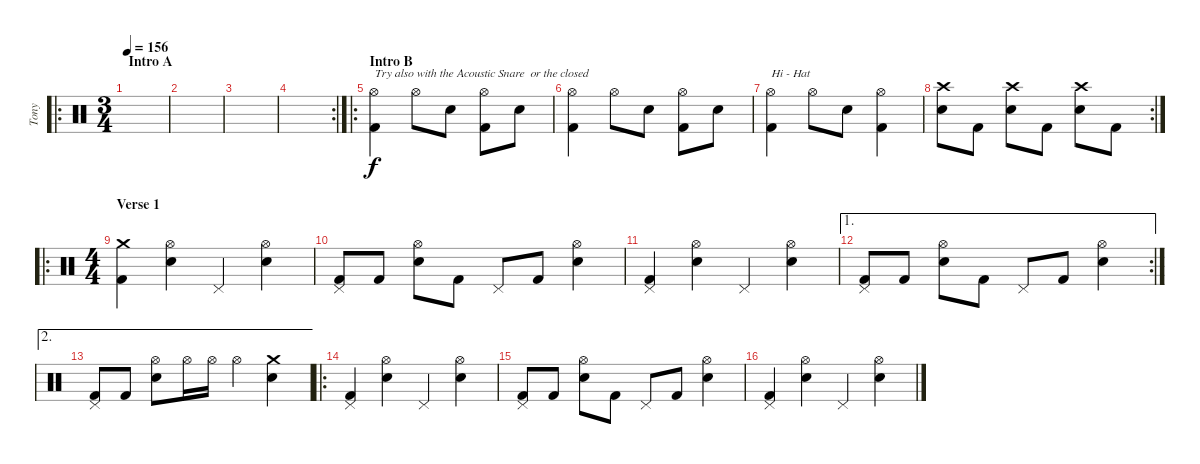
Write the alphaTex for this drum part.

\track ("Tony" "Tony") {instrument percussion}
\staff {score}
\articulation defaults
\ro
\ts (3 4)
\section ("" "Intro A")
\tempo 156
\clef neutral
\ks c
|
|
|
\rc 2
|
\ro
\section ("" "Intro B")
("Hi-Hat (open)" "Kick (hit) 2").4{txt "Try also with the Acoustic Snare  or the closed"} "Hi-Hat (open)".8 "Electric Snare (hit)".8 ("Hi-Hat (open)" "Kick (hit) 2").8 "Electric Snare (hit)".8 |
("Hi-Hat (open)" "Kick (hit) 2").4 "Hi-Hat (open)".8 "Electric Snare (hit)".8 ("Hi-Hat (open)" "Kick (hit) 2").8 "Electric Snare (hit)".8 |
("Hi-Hat (open)" "Kick (hit) 2").4{txt "Hi - Hat"} "Hi-Hat (open)".8 "Electric Snare (hit)".8 ("Hi-Hat (open)" "Kick (hit) 2").4 |
\rc 2
("Crash high (hit)" "Electric Snare (hit)").8 "Kick (hit) 2".8 ("Crash high (hit)" "Electric Snare (hit)").8 "Kick (hit) 2".8 ("Crash high (hit)" "Electric Snare (hit)").8 "Kick (hit) 2".8 |
\ro
\ts (4 4)
\section ("" "Verse 1")
("Crash medium (hit)" "Kick (hit) 2").4 ("Hi-Hat (open)" "Electric Snare (hit)").4 "Pedal Hi-Hat (hit)".4 ("Hi-Hat (open)" "Electric Snare (hit)").4 |
("Pedal Hi-Hat (hit)" "Kick (hit) 2").8 "Kick (hit) 2".8 ("Hi-Hat (open)" "Electric Snare (hit)").8 "Kick (hit) 2".8 "Pedal Hi-Hat (hit)".8 "Kick (hit) 2".8 ("Hi-Hat (open)" "Electric Snare (hit)").4 |
("Pedal Hi-Hat (hit)" "Kick (hit) 2").4 ("Hi-Hat (open)" "Electric Snare (hit)").4 "Pedal Hi-Hat (hit)".4 ("Hi-Hat (open)" "Electric Snare (hit)").4 |
\ae 1
\rc 2
("Pedal Hi-Hat (hit)" "Kick (hit) 2").8 "Kick (hit) 2".8 ("Hi-Hat (open)" "Electric Snare (hit)").8 "Kick (hit) 2".8 "Pedal Hi-Hat (hit)".8 "Kick (hit) 2".8 ("Hi-Hat (open)" "Electric Snare (hit)").4 |
\ae 2
("Pedal Hi-Hat (hit)" "Kick (hit) 2").8 "Kick (hit) 2".8 ("Hi-Hat (open)" "Electric Snare (hit)").8 "Hi-Hat (open)".16 "Hi-Hat (open)".16 "Hi-Hat (open)".4 ("Crash medium (hit)" "Electric Snare (hit)").4 |
\ro
("Pedal Hi-Hat (hit)" "Kick (hit) 2").4 ("Hi-Hat (open)" "Electric Snare (hit)").4 "Pedal Hi-Hat (hit)".4 ("Hi-Hat (open)" "Electric Snare (hit)").4 |
("Pedal Hi-Hat (hit)" "Kick (hit) 2").8 "Kick (hit) 2".8 ("Hi-Hat (open)" "Electric Snare (hit)").8 "Kick (hit) 2".8 "Pedal Hi-Hat (hit)".8 "Kick (hit) 2".8 ("Hi-Hat (open)" "Electric Snare (hit)").4 |
("Pedal Hi-Hat (hit)" "Kick (hit) 2").4 ("Hi-Hat (open)" "Electric Snare (hit)").4 "Pedal Hi-Hat (hit)".4 ("Hi-Hat (open)" "Electric Snare (hit)").4
